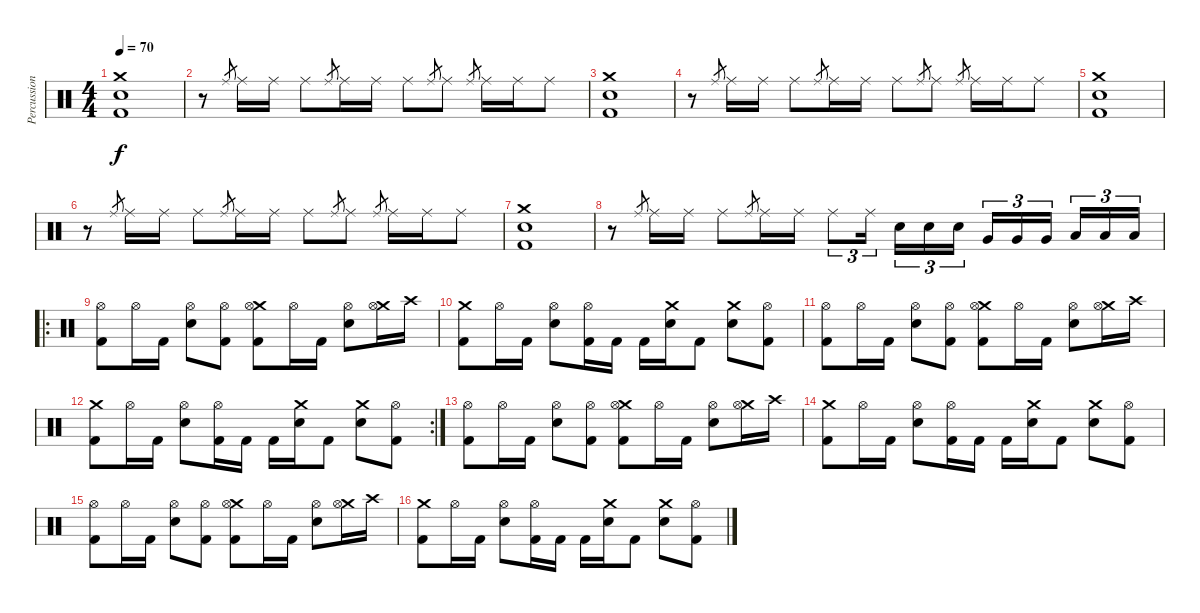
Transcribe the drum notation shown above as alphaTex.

\track ("Percussion" "Percussion") {instrument percussion}
\staff {score}
\articulation defaults
\ts (4 4)
\tempo 70
\clef neutral
\ks c
("Crash medium (hit)" "Electric Snare (hit)" "Kick (hit) 2").1{dy f} |
r.8 "Ride (middle)".8{gr} "Ride (middle)".16 "Ride (middle)".16 "Ride (middle)".8 "Ride (middle)".8{gr} "Ride (middle)".16 "Ride (middle)".16 "Ride (middle)".8 "Ride (middle)".8{gr} "Ride (middle)".8 "Ride (middle)".8{gr} "Ride (middle)".16 "Ride (middle)".16 "Ride (middle)".8 |
("Crash medium (hit)" "Electric Snare (hit)" "Kick (hit) 2").1 |
r.8 "Ride (middle)".8{gr} "Ride (middle)".16 "Ride (middle)".16 "Ride (middle)".8 "Ride (middle)".8{gr} "Ride (middle)".16 "Ride (middle)".16 "Ride (middle)".8 "Ride (middle)".8{gr} "Ride (middle)".8 "Ride (middle)".8{gr} "Ride (middle)".16 "Ride (middle)".16 "Ride (middle)".8 |
("Crash medium (hit)" "Electric Snare (hit)" "Kick (hit) 2").1 |
r.8 "Ride (middle)".8{gr} "Ride (middle)".16 "Ride (middle)".16 "Ride (middle)".8 "Ride (middle)".8{gr} "Ride (middle)".16 "Ride (middle)".16 "Ride (middle)".8 "Ride (middle)".8{gr} "Ride (middle)".8 "Ride (middle)".8{gr} "Ride (middle)".16 "Ride (middle)".16 "Ride (middle)".8 |
("Crash medium (hit)" "Electric Snare (hit)" "Kick (hit) 2").1 |
r.8 "Ride (middle)".8{gr} "Ride (middle)".16 "Ride (middle)".16 "Ride (middle)".8 "Ride (middle)".8{gr} "Ride (middle)".16 "Ride (middle)".16 "Ride (middle)".8{tu (3 2)} "Ride (middle)".16{tu (3 2) beam splitsecondary} "Electric Snare (hit)".16{tu (3 2)} "Electric Snare (hit)".16{tu (3 2)} "Electric Snare (hit)".16{tu (3 2)} "Very Low Tom (hit)".16{tu (3 2)} "Very Low Tom (hit)".16{tu (3 2)} "Very Low Tom (hit)".16{tu (3 2) beam splitsecondary} "Low Floor Tom (hit)".16{tu (3 2)} "Low Floor Tom (hit)".16{tu (3 2)} "Low Floor Tom (hit)".16{tu (3 2)} |
\ro
("Hi-Hat (open)" "Kick (hit) 2").8 "Hi-Hat (open)".16 "Kick (hit) 2".16 ("Hi-Hat (open)" "Electric Snare (hit)").8 ("Hi-Hat (open)" "Kick (hit) 2").8 ("Crash medium (hit)" "Hi-Hat (open)" "Kick (hit) 2").8 "Hi-Hat (open)".16 "Kick (hit) 2".16 ("Hi-Hat (open)" "Electric Snare (hit)").8 ("Crash medium (hit)" "Hi-Hat (open)").16 "Crash high (hit)".16 |
("Crash medium (hit)" "Kick (hit) 2").8 "Hi-Hat (open)".16 "Kick (hit) 2".16 ("Hi-Hat (open)" "Electric Snare (hit)").8 ("Hi-Hat (open)" "Kick (hit) 2").16 "Kick (hit) 2".16 "Kick (hit) 2".16 ("Crash medium (hit)" "Electric Snare (hit)").16 "Kick (hit) 2".8 ("Crash medium (hit)" "Electric Snare (hit)").8 ("Hi-Hat (open)" "Kick (hit) 2").8 |
("Hi-Hat (open)" "Kick (hit) 2").8 "Hi-Hat (open)".16 "Kick (hit) 2".16 ("Hi-Hat (open)" "Electric Snare (hit)").8 ("Hi-Hat (open)" "Kick (hit) 2").8 ("Crash medium (hit)" "Hi-Hat (open)" "Kick (hit) 2").8 "Hi-Hat (open)".16 "Kick (hit) 2".16 ("Hi-Hat (open)" "Electric Snare (hit)").8 ("Crash medium (hit)" "Hi-Hat (open)").16 "Crash high (hit)".16 |
\rc 2
("Crash medium (hit)" "Kick (hit) 2").8 "Hi-Hat (open)".16 "Kick (hit) 2".16 ("Hi-Hat (open)" "Electric Snare (hit)").8 ("Hi-Hat (open)" "Kick (hit) 2").16 "Kick (hit) 2".16 "Kick (hit) 2".16 ("Crash medium (hit)" "Electric Snare (hit)").16 "Kick (hit) 2".8 ("Crash medium (hit)" "Electric Snare (hit)").8 ("Hi-Hat (open)" "Kick (hit) 2").8 |
("Hi-Hat (open)" "Kick (hit) 2").8 "Hi-Hat (open)".16 "Kick (hit) 2".16 ("Hi-Hat (open)" "Electric Snare (hit)").8 ("Hi-Hat (open)" "Kick (hit) 2").8 ("Crash medium (hit)" "Hi-Hat (open)" "Kick (hit) 2").8 "Hi-Hat (open)".16 "Kick (hit) 2".16 ("Hi-Hat (open)" "Electric Snare (hit)").8 ("Crash medium (hit)" "Hi-Hat (open)").16 "Crash high (hit)".16 |
("Crash medium (hit)" "Kick (hit) 2").8 "Hi-Hat (open)".16 "Kick (hit) 2".16 ("Hi-Hat (open)" "Electric Snare (hit)").8 ("Hi-Hat (open)" "Kick (hit) 2").16 "Kick (hit) 2".16 "Kick (hit) 2".16 ("Crash medium (hit)" "Electric Snare (hit)").16 "Kick (hit) 2".8 ("Crash medium (hit)" "Electric Snare (hit)").8 ("Hi-Hat (open)" "Kick (hit) 2").8 |
("Hi-Hat (open)" "Kick (hit) 2").8 "Hi-Hat (open)".16 "Kick (hit) 2".16 ("Hi-Hat (open)" "Electric Snare (hit)").8 ("Hi-Hat (open)" "Kick (hit) 2").8 ("Crash medium (hit)" "Hi-Hat (open)" "Kick (hit) 2").8 "Hi-Hat (open)".16 "Kick (hit) 2".16 ("Hi-Hat (open)" "Electric Snare (hit)").8 ("Crash medium (hit)" "Hi-Hat (open)").16 "Crash high (hit)".16 |
("Crash medium (hit)" "Kick (hit) 2").8 "Hi-Hat (open)".16 "Kick (hit) 2".16 ("Hi-Hat (open)" "Electric Snare (hit)").8 ("Hi-Hat (open)" "Kick (hit) 2").16 "Kick (hit) 2".16 "Kick (hit) 2".16 ("Crash medium (hit)" "Electric Snare (hit)").16 "Kick (hit) 2".8 ("Crash medium (hit)" "Electric Snare (hit)").8 ("Hi-Hat (open)" "Kick (hit) 2").8
